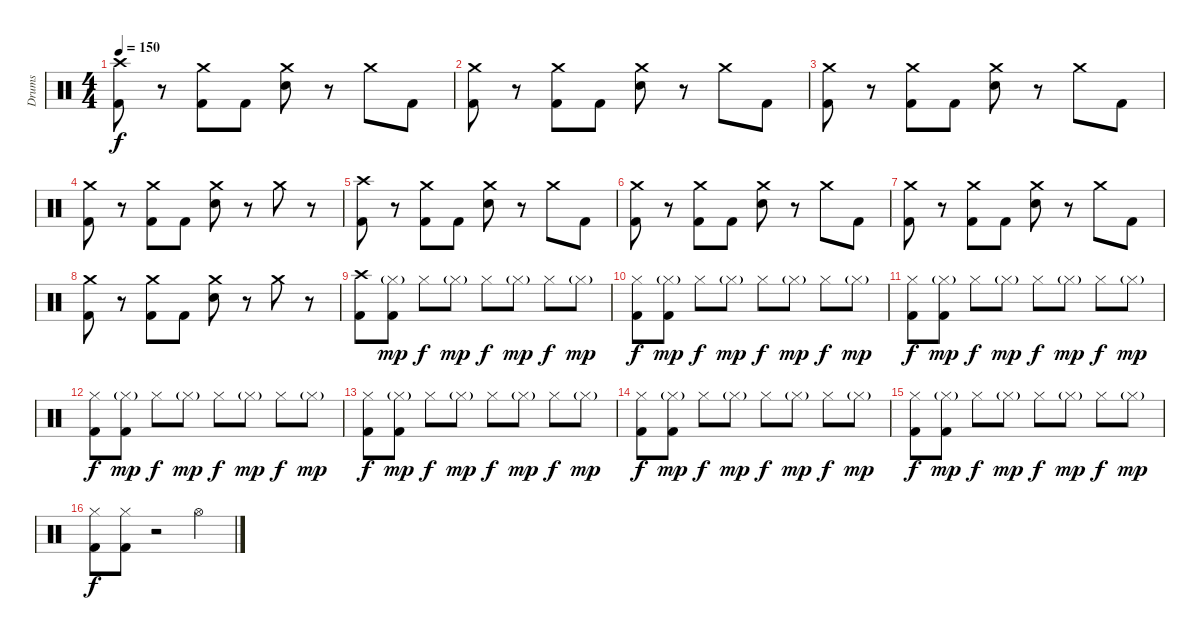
\track ("Drums" "Drums") {instrument percussion}
\staff {score}
\articulation defaults
\ts (4 4)
\tempo 150
\clef neutral
\ks c
("Crash high (hit)" "Kick (hit) 2").8{dy f} r.8 ("Crash medium (hit)" "Kick (hit) 2").8 "Kick (hit) 2".8 ("Crash medium (hit)" "Snare (hit) 2").8 r.8 "Crash medium (hit)".8 "Kick (hit) 2".8 |
("Crash medium (hit)" "Kick (hit) 2").8 r.8 ("Crash medium (hit)" "Kick (hit) 2").8 "Kick (hit) 2".8 ("Crash medium (hit)" "Snare (hit) 2").8 r.8 "Crash medium (hit)".8 "Kick (hit) 2".8 |
("Crash medium (hit)" "Kick (hit) 2").8 r.8 ("Crash medium (hit)" "Kick (hit) 2").8 "Kick (hit) 2".8 ("Crash medium (hit)" "Snare (hit) 2").8 r.8 "Crash medium (hit)".8 "Kick (hit) 2".8 |
("Crash medium (hit)" "Kick (hit) 2").8 r.8 ("Crash medium (hit)" "Kick (hit) 2").8 "Kick (hit) 2".8 ("Crash medium (hit)" "Snare (hit) 2").8 r.8 "Crash medium (hit)".8 r.8 |
("Crash high (hit)" "Kick (hit) 2").8 r.8 ("Crash medium (hit)" "Kick (hit) 2").8 "Kick (hit) 2".8 ("Crash medium (hit)" "Snare (hit) 2").8 r.8 "Crash medium (hit)".8 "Kick (hit) 2".8 |
("Crash medium (hit)" "Kick (hit) 2").8 r.8 ("Crash medium (hit)" "Kick (hit) 2").8 "Kick (hit) 2".8 ("Crash medium (hit)" "Snare (hit) 2").8 r.8 "Crash medium (hit)".8 "Kick (hit) 2".8 |
("Crash medium (hit)" "Kick (hit) 2").8 r.8 ("Crash medium (hit)" "Kick (hit) 2").8 "Kick (hit) 2".8 ("Crash medium (hit)" "Snare (hit) 2").8 r.8 "Crash medium (hit)".8 "Kick (hit) 2".8 |
("Crash medium (hit)" "Kick (hit) 2").8 r.8 ("Crash medium (hit)" "Kick (hit) 2").8 "Kick (hit) 2".8 ("Crash medium (hit)" "Snare (hit) 2").8 r.8 "Crash medium (hit)".8 r.8 |
("Crash high (hit)" "Kick (hit) 2").8 ("Hi-Hat (closed)"{g} "Kick (hit) 2").8{dy mp} "Hi-Hat (closed)".8{dy f} "Hi-Hat (closed)"{g}.8{dy mp} "Hi-Hat (closed)".8{dy f} "Hi-Hat (closed)"{g}.8{dy mp} "Hi-Hat (closed)".8{dy f} "Hi-Hat (closed)"{g}.8{dy mp} |
("Hi-Hat (closed)" "Kick (hit) 2").8{dy f} ("Hi-Hat (closed)"{g} "Kick (hit) 2").8{dy mp} "Hi-Hat (closed)".8{dy f} "Hi-Hat (closed)"{g}.8{dy mp} "Hi-Hat (closed)".8{dy f} "Hi-Hat (closed)"{g}.8{dy mp} "Hi-Hat (closed)".8{dy f} "Hi-Hat (closed)"{g}.8{dy mp} |
("Hi-Hat (closed)" "Kick (hit) 2").8{dy f} ("Hi-Hat (closed)"{g} "Kick (hit) 2").8{dy mp} "Hi-Hat (closed)".8{dy f} "Hi-Hat (closed)"{g}.8{dy mp} "Hi-Hat (closed)".8{dy f} "Hi-Hat (closed)"{g}.8{dy mp} "Hi-Hat (closed)".8{dy f} "Hi-Hat (closed)"{g}.8{dy mp} |
("Hi-Hat (closed)" "Kick (hit) 2").8{dy f} ("Hi-Hat (closed)"{g} "Kick (hit) 2").8{dy mp} "Hi-Hat (closed)".8{dy f} "Hi-Hat (closed)"{g}.8{dy mp} "Hi-Hat (closed)".8{dy f} "Hi-Hat (closed)"{g}.8{dy mp} "Hi-Hat (closed)".8{dy f} "Hi-Hat (closed)"{g}.8{dy mp} |
("Hi-Hat (closed)" "Kick (hit) 2").8{dy f} ("Hi-Hat (closed)"{g} "Kick (hit) 2").8{dy mp} "Hi-Hat (closed)".8{dy f} "Hi-Hat (closed)"{g}.8{dy mp} "Hi-Hat (closed)".8{dy f} "Hi-Hat (closed)"{g}.8{dy mp} "Hi-Hat (closed)".8{dy f} "Hi-Hat (closed)"{g}.8{dy mp} |
("Hi-Hat (closed)" "Kick (hit) 2").8{dy f} ("Hi-Hat (closed)"{g} "Kick (hit) 2").8{dy mp} "Hi-Hat (closed)".8{dy f} "Hi-Hat (closed)"{g}.8{dy mp} "Hi-Hat (closed)".8{dy f} "Hi-Hat (closed)"{g}.8{dy mp} "Hi-Hat (closed)".8{dy f} "Hi-Hat (closed)"{g}.8{dy mp} |
("Hi-Hat (closed)" "Kick (hit) 2").8{dy f} ("Hi-Hat (closed)"{g} "Kick (hit) 2").8{dy mp} "Hi-Hat (closed)".8{dy f} "Hi-Hat (closed)"{g}.8{dy mp} "Hi-Hat (closed)".8{dy f} "Hi-Hat (closed)"{g}.8{dy mp} "Hi-Hat (closed)".8{dy f} "Hi-Hat (closed)"{g}.8{dy mp} |
("Hi-Hat (closed)" "Kick (hit) 2").8{dy f} ("Hi-Hat (closed)" "Kick (hit) 2").8 r.2 "Hi-Hat (open)".4
